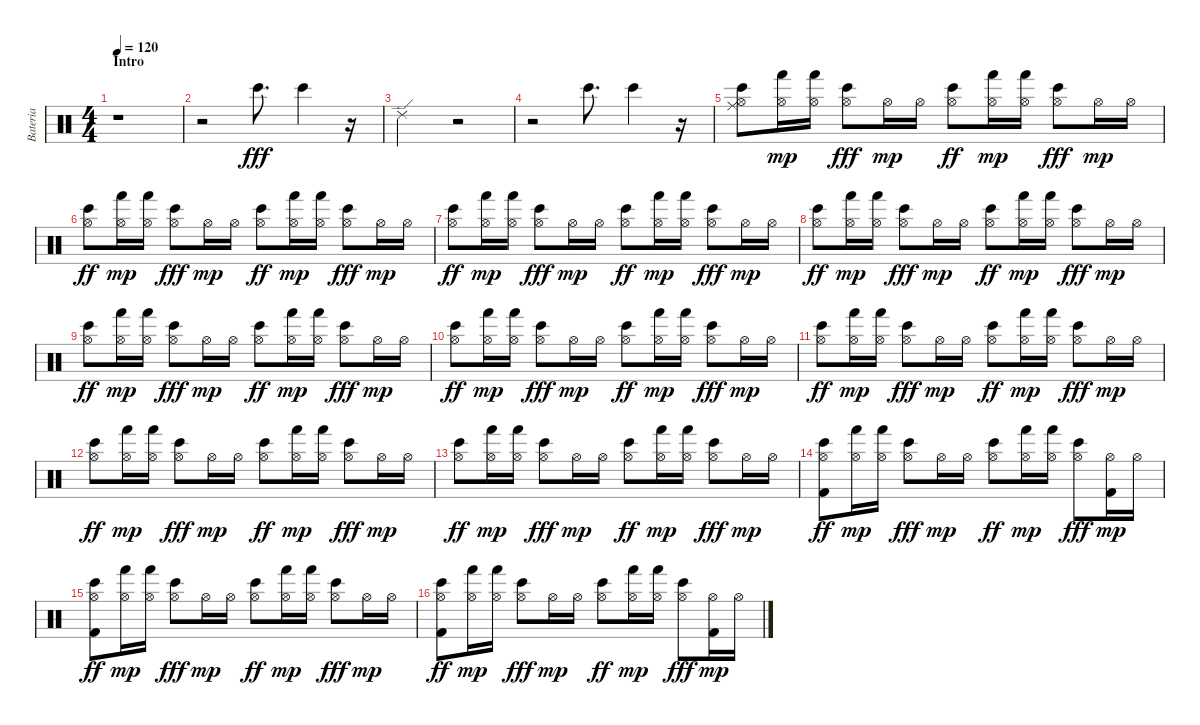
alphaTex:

\track ("Bateria" "Bateria") {instrument percussion}
\staff {score}
\articulation defaults
\ts (4 4)
\section ("" "Intro")
\tempo 120
\clef neutral
\ks c
r.1{dy fff} |
r.2 "Bongo High (hit)".8{d} "Bongo High (hit)".4 r.16 |
"Ride (edge) 2".2 r.2 |
r.2 "Bongo High (hit)".8{d} "Bongo High (hit)".4 r.16 |
("Hi-Hat (open)" "Bongo High (hit)" "Ride (middle)").8 ("Hi-Hat (open)" "Hand (hit)").16{dy mp} ("Hi-Hat (open)" "Hand (hit)").16 ("Hi-Hat (open)" "Bongo High (hit)").8{dy fff} "Hi-Hat (open)".16{dy mp} "Hi-Hat (open)".16 ("Hi-Hat (open)" "Bongo High (hit)").8{dy ff} ("Hi-Hat (open)" "Hand (hit)").16{dy mp} ("Hi-Hat (open)" "Hand (hit)").16 ("Hi-Hat (open)" "Bongo High (hit)").8{dy fff} "Hi-Hat (open)".16{dy mp} "Hi-Hat (open)".16 |
("Hi-Hat (open)" "Bongo High (hit)").8{dy ff} ("Hi-Hat (open)" "Hand (hit)").16{dy mp} ("Hi-Hat (open)" "Hand (hit)").16 ("Hi-Hat (open)" "Bongo High (hit)").8{dy fff} "Hi-Hat (open)".16{dy mp} "Hi-Hat (open)".16 ("Hi-Hat (open)" "Bongo High (hit)").8{dy ff} ("Hi-Hat (open)" "Hand (hit)").16{dy mp} ("Hi-Hat (open)" "Hand (hit)").16 ("Hi-Hat (open)" "Bongo High (hit)").8{dy fff} "Hi-Hat (open)".16{dy mp} "Hi-Hat (open)".16 |
("Hi-Hat (open)" "Bongo High (hit)").8{dy ff} ("Hi-Hat (open)" "Hand (hit)").16{dy mp} ("Hi-Hat (open)" "Hand (hit)").16 ("Hi-Hat (open)" "Bongo High (hit)").8{dy fff} "Hi-Hat (open)".16{dy mp} "Hi-Hat (open)".16 ("Hi-Hat (open)" "Bongo High (hit)").8{dy ff} ("Hi-Hat (open)" "Hand (hit)").16{dy mp} ("Hi-Hat (open)" "Hand (hit)").16 ("Hi-Hat (open)" "Bongo High (hit)").8{dy fff} "Hi-Hat (open)".16{dy mp} "Hi-Hat (open)".16 |
("Hi-Hat (open)" "Bongo High (hit)").8{dy ff} ("Hi-Hat (open)" "Hand (hit)").16{dy mp} ("Hi-Hat (open)" "Hand (hit)").16 ("Hi-Hat (open)" "Bongo High (hit)").8{dy fff} "Hi-Hat (open)".16{dy mp} "Hi-Hat (open)".16 ("Hi-Hat (open)" "Bongo High (hit)").8{dy ff} ("Hi-Hat (open)" "Hand (hit)").16{dy mp} ("Hi-Hat (open)" "Hand (hit)").16 ("Hi-Hat (open)" "Bongo High (hit)").8{dy fff} "Hi-Hat (open)".16{dy mp} "Hi-Hat (open)".16 |
("Hi-Hat (open)" "Bongo High (hit)").8{dy ff} ("Hi-Hat (open)" "Hand (hit)").16{dy mp} ("Hi-Hat (open)" "Hand (hit)").16 ("Hi-Hat (open)" "Bongo High (hit)").8{dy fff} "Hi-Hat (open)".16{dy mp} "Hi-Hat (open)".16 ("Hi-Hat (open)" "Bongo High (hit)").8{dy ff} ("Hi-Hat (open)" "Hand (hit)").16{dy mp} ("Hi-Hat (open)" "Hand (hit)").16 ("Hi-Hat (open)" "Bongo High (hit)").8{dy fff} "Hi-Hat (open)".16{dy mp} "Hi-Hat (open)".16 |
("Hi-Hat (open)" "Bongo High (hit)").8{dy ff} ("Hi-Hat (open)" "Hand (hit)").16{dy mp} ("Hi-Hat (open)" "Hand (hit)").16 ("Hi-Hat (open)" "Bongo High (hit)").8{dy fff} "Hi-Hat (open)".16{dy mp} "Hi-Hat (open)".16 ("Hi-Hat (open)" "Bongo High (hit)").8{dy ff} ("Hi-Hat (open)" "Hand (hit)").16{dy mp} ("Hi-Hat (open)" "Hand (hit)").16 ("Hi-Hat (open)" "Bongo High (hit)").8{dy fff} "Hi-Hat (open)".16{dy mp} "Hi-Hat (open)".16 |
("Hi-Hat (open)" "Bongo High (hit)").8{dy ff} ("Hi-Hat (open)" "Hand (hit)").16{dy mp} ("Hi-Hat (open)" "Hand (hit)").16 ("Hi-Hat (open)" "Bongo High (hit)").8{dy fff} "Hi-Hat (open)".16{dy mp} "Hi-Hat (open)".16 ("Hi-Hat (open)" "Bongo High (hit)").8{dy ff} ("Hi-Hat (open)" "Hand (hit)").16{dy mp} ("Hi-Hat (open)" "Hand (hit)").16 ("Hi-Hat (open)" "Bongo High (hit)").8{dy fff} "Hi-Hat (open)".16{dy mp} "Hi-Hat (open)".16 |
("Hi-Hat (open)" "Bongo High (hit)").8{dy ff} ("Hi-Hat (open)" "Hand (hit)").16{dy mp} ("Hi-Hat (open)" "Hand (hit)").16 ("Hi-Hat (open)" "Bongo High (hit)").8{dy fff} "Hi-Hat (open)".16{dy mp} "Hi-Hat (open)".16 ("Hi-Hat (open)" "Bongo High (hit)").8{dy ff} ("Hi-Hat (open)" "Hand (hit)").16{dy mp} ("Hi-Hat (open)" "Hand (hit)").16 ("Hi-Hat (open)" "Bongo High (hit)").8{dy fff} "Hi-Hat (open)".16{dy mp} "Hi-Hat (open)".16 |
("Hi-Hat (open)" "Bongo High (hit)").8{dy ff} ("Hi-Hat (open)" "Hand (hit)").16{dy mp} ("Hi-Hat (open)" "Hand (hit)").16 ("Hi-Hat (open)" "Bongo High (hit)").8{dy fff} "Hi-Hat (open)".16{dy mp} "Hi-Hat (open)".16 ("Hi-Hat (open)" "Bongo High (hit)").8{dy ff} ("Hi-Hat (open)" "Hand (hit)").16{dy mp} ("Hi-Hat (open)" "Hand (hit)").16 ("Hi-Hat (open)" "Bongo High (hit)").8{dy fff} "Hi-Hat (open)".16{dy mp} "Hi-Hat (open)".16 |
("Hi-Hat (open)" "Kick (hit) 2" "Bongo High (hit)").8{dy ff} ("Hi-Hat (open)" "Hand (hit)").16{dy mp} ("Hi-Hat (open)" "Hand (hit)").16 ("Hi-Hat (open)" "Bongo High (hit)").8{dy fff} "Hi-Hat (open)".16{dy mp} "Hi-Hat (open)".16 ("Hi-Hat (open)" "Bongo High (hit)").8{dy ff} ("Hi-Hat (open)" "Hand (hit)").16{dy mp} ("Hi-Hat (open)" "Hand (hit)").16 ("Hi-Hat (open)" "Bongo High (hit)").8{dy fff} ("Hi-Hat (open)" "Kick (hit) 2").16{dy mp} "Hi-Hat (open)".16 |
("Hi-Hat (open)" "Kick (hit) 2" "Bongo High (hit)").8{dy ff} ("Hi-Hat (open)" "Hand (hit)").16{dy mp} ("Hi-Hat (open)" "Hand (hit)").16 ("Hi-Hat (open)" "Bongo High (hit)").8{dy fff} "Hi-Hat (open)".16{dy mp} "Hi-Hat (open)".16 ("Hi-Hat (open)" "Bongo High (hit)").8{dy ff} ("Hi-Hat (open)" "Hand (hit)").16{dy mp} ("Hi-Hat (open)" "Hand (hit)").16 ("Hi-Hat (open)" "Bongo High (hit)").8{dy fff} "Hi-Hat (open)".16{dy mp} "Hi-Hat (open)".16 |
("Hi-Hat (open)" "Kick (hit) 2" "Bongo High (hit)").8{dy ff} ("Hi-Hat (open)" "Hand (hit)").16{dy mp} ("Hi-Hat (open)" "Hand (hit)").16 ("Hi-Hat (open)" "Bongo High (hit)").8{dy fff} "Hi-Hat (open)".16{dy mp} "Hi-Hat (open)".16 ("Hi-Hat (open)" "Bongo High (hit)").8{dy ff} ("Hi-Hat (open)" "Hand (hit)").16{dy mp} ("Hi-Hat (open)" "Hand (hit)").16 ("Hi-Hat (open)" "Bongo High (hit)").8{dy fff} ("Hi-Hat (open)" "Kick (hit) 2").16{dy mp} "Hi-Hat (open)".16
